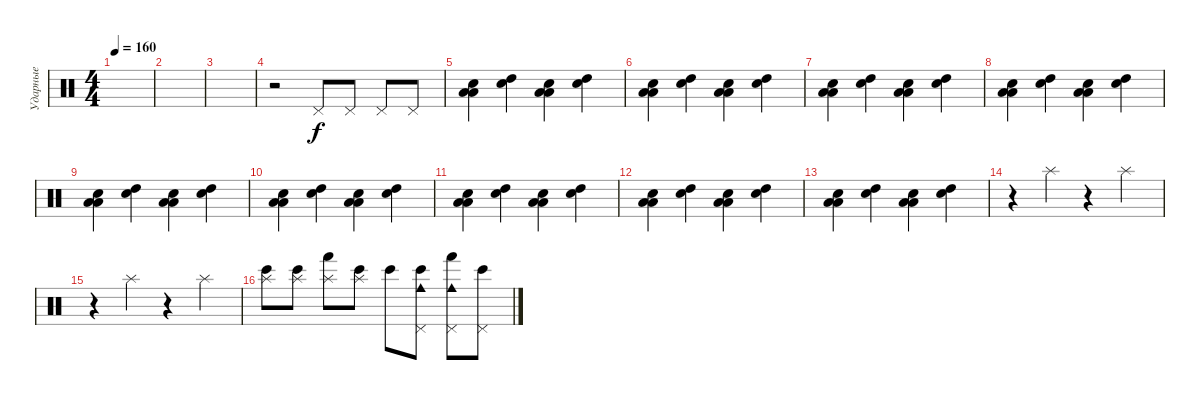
\track ("Ударные" "Ударные") {instrument percussion}
\staff {score}
\articulation defaults
\ts (4 4)
\tempo 160
\clef neutral
\ks c
|
|
|
r.2 "Pedal Hi-Hat (hit)".8 "Pedal Hi-Hat (hit)".8 "Pedal Hi-Hat (hit)".8 "Pedal Hi-Hat (hit)".8 |
("Low Tom (hit)" "Low Tom (hit)" "Electric Snare (hit)").4 ("High Tom (hit)" "Snare (hit) 2").4 ("Low Tom (hit)" "Low Tom (hit)" "Electric Snare (hit)").4 ("High Tom (hit)" "Snare (hit) 2").4 |
("Low Tom (hit)" "Low Tom (hit)" "Electric Snare (hit)").4 ("High Tom (hit)" "Snare (hit) 2").4 ("Low Tom (hit)" "Low Tom (hit)" "Electric Snare (hit)").4 ("High Tom (hit)" "Snare (hit) 2").4 |
("Low Tom (hit)" "Low Tom (hit)" "Electric Snare (hit)").4 ("High Tom (hit)" "Snare (hit) 2").4 ("Low Tom (hit)" "Low Tom (hit)" "Electric Snare (hit)").4 ("High Tom (hit)" "Snare (hit) 2").4 |
("Low Tom (hit)" "Low Tom (hit)" "Electric Snare (hit)").4 ("High Tom (hit)" "Snare (hit) 2").4 ("Low Tom (hit)" "Low Tom (hit)" "Electric Snare (hit)").4 ("High Tom (hit)" "Snare (hit) 2").4 |
("Low Tom (hit)" "Low Tom (hit)" "Electric Snare (hit)").4 ("High Tom (hit)" "Snare (hit) 2").4 ("Low Tom (hit)" "Low Tom (hit)" "Electric Snare (hit)").4 ("High Tom (hit)" "Snare (hit) 2").4 |
("Low Tom (hit)" "Low Tom (hit)" "Electric Snare (hit)").4 ("High Tom (hit)" "Snare (hit) 2").4 ("Low Tom (hit)" "Low Tom (hit)" "Electric Snare (hit)").4 ("High Tom (hit)" "Snare (hit) 2").4 |
("Low Tom (hit)" "Low Tom (hit)" "Electric Snare (hit)").4 ("High Tom (hit)" "Snare (hit) 2").4 ("Low Tom (hit)" "Low Tom (hit)" "Electric Snare (hit)").4 ("High Tom (hit)" "Snare (hit) 2").4 |
("Low Tom (hit)" "Low Tom (hit)" "Electric Snare (hit)").4 ("High Tom (hit)" "Snare (hit) 2").4 ("Low Tom (hit)" "Low Tom (hit)" "Electric Snare (hit)").4 ("High Tom (hit)" "Snare (hit) 2").4 |
("Low Tom (hit)" "Low Tom (hit)" "Electric Snare (hit)").4 ("High Tom (hit)" "Snare (hit) 2").4 ("Low Tom (hit)" "Low Tom (hit)" "Electric Snare (hit)").4 ("High Tom (hit)" "Snare (hit) 2").4 |
r.4 "Splash (hit)".4 r.4 "Splash (hit)".4 |
r.4 "Splash (hit)".4 r.4 "Splash (hit)".4 |
("Splash (hit)" "Bongo High (hit)").8 ("Splash (hit)" "Bongo High (hit)").8 ("Splash (hit)" "Hand (hit)").8 ("Splash (hit)" "Bongo High (hit)").8 "Bongo High (hit)".8 ("Cowbell medium (hit)" "Pedal Hi-Hat (hit)" "Bongo High (hit)").8 ("Cowbell medium (hit)" "Pedal Hi-Hat (hit)" "Hand (hit)").8 ("Pedal Hi-Hat (hit)" "Bongo High (hit)").8
